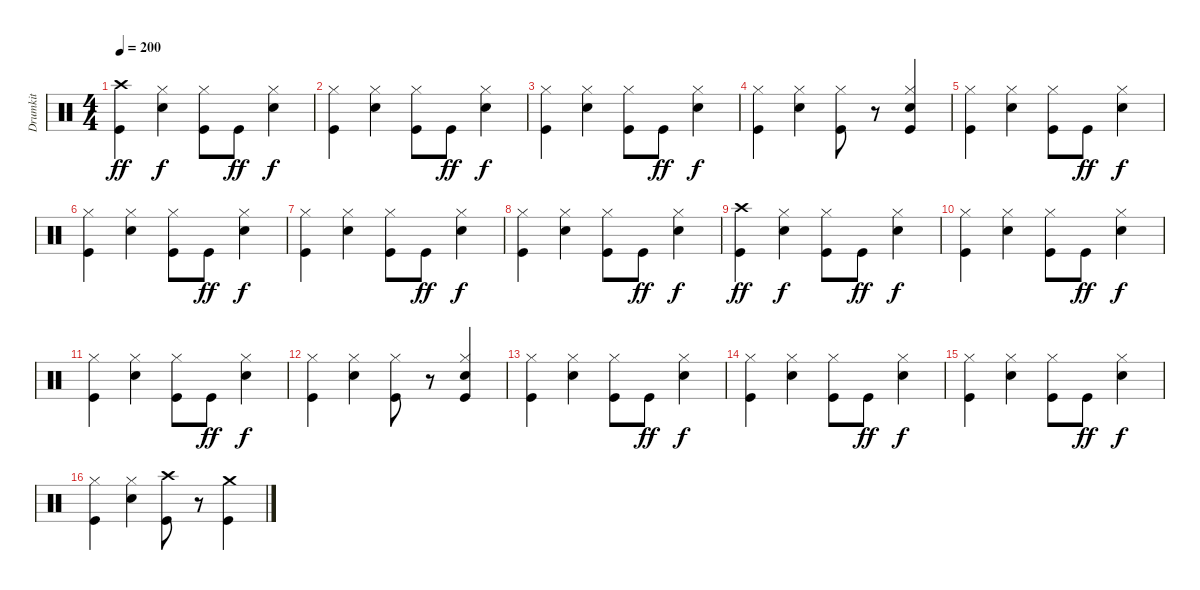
\track ("Drumkit" "Drumkit") {instrument percussion}
\staff {score}
\articulation defaults
\ts (4 4)
\tempo 200
\clef neutral
\ks c
("Crash high (hit)" "Kick (hit)").4{dy ff} ("Hi-Hat (closed)" "Snare (hit) 2").4{dy f} ("Hi-Hat (closed)" "Kick (hit)").8 "Kick (hit)".8{dy ff} ("Hi-Hat (closed)" "Snare (hit) 2").4{dy f} |
("Hi-Hat (closed)" "Kick (hit)").4 ("Hi-Hat (closed)" "Snare (hit) 2").4 ("Hi-Hat (closed)" "Kick (hit)").8 "Kick (hit)".8{dy ff} ("Hi-Hat (closed)" "Snare (hit) 2").4{dy f} |
("Hi-Hat (closed)" "Kick (hit)").4 ("Hi-Hat (closed)" "Snare (hit) 2").4 ("Hi-Hat (closed)" "Kick (hit)").8 "Kick (hit)".8{dy ff} ("Hi-Hat (closed)" "Snare (hit) 2").4{dy f} |
("Hi-Hat (closed)" "Kick (hit)").4 ("Hi-Hat (closed)" "Snare (hit) 2").4 ("Hi-Hat (closed)" "Kick (hit)").8 r.8 ("Hi-Hat (closed)" "Snare (hit) 2" "Kick (hit)").4 |
("Hi-Hat (closed)" "Kick (hit)").4 ("Hi-Hat (closed)" "Snare (hit) 2").4 ("Hi-Hat (closed)" "Kick (hit)").8 "Kick (hit)".8{dy ff} ("Hi-Hat (closed)" "Snare (hit) 2").4{dy f} |
("Hi-Hat (closed)" "Kick (hit)").4 ("Hi-Hat (closed)" "Snare (hit) 2").4 ("Hi-Hat (closed)" "Kick (hit)").8 "Kick (hit)".8{dy ff} ("Hi-Hat (closed)" "Snare (hit) 2").4{dy f} |
("Hi-Hat (closed)" "Kick (hit)").4 ("Hi-Hat (closed)" "Snare (hit) 2").4 ("Hi-Hat (closed)" "Kick (hit)").8 "Kick (hit)".8{dy ff} ("Hi-Hat (closed)" "Snare (hit) 2").4{dy f} |
("Hi-Hat (closed)" "Kick (hit)").4 ("Hi-Hat (closed)" "Snare (hit) 2").4 ("Hi-Hat (closed)" "Kick (hit)").8 "Kick (hit)".8{dy ff} ("Hi-Hat (closed)" "Snare (hit) 2").4{dy f} |
("Crash high (hit)" "Kick (hit)").4{dy ff} ("Hi-Hat (closed)" "Snare (hit) 2").4{dy f} ("Hi-Hat (closed)" "Kick (hit)").8 "Kick (hit)".8{dy ff} ("Hi-Hat (closed)" "Snare (hit) 2").4{dy f} |
("Hi-Hat (closed)" "Kick (hit)").4 ("Hi-Hat (closed)" "Snare (hit) 2").4 ("Hi-Hat (closed)" "Kick (hit)").8 "Kick (hit)".8{dy ff} ("Hi-Hat (closed)" "Snare (hit) 2").4{dy f} |
("Hi-Hat (closed)" "Kick (hit)").4 ("Hi-Hat (closed)" "Snare (hit) 2").4 ("Hi-Hat (closed)" "Kick (hit)").8 "Kick (hit)".8{dy ff} ("Hi-Hat (closed)" "Snare (hit) 2").4{dy f} |
("Hi-Hat (closed)" "Kick (hit)").4 ("Hi-Hat (closed)" "Snare (hit) 2").4 ("Hi-Hat (closed)" "Kick (hit)").8 r.8 ("Hi-Hat (closed)" "Snare (hit) 2" "Kick (hit)").4 |
("Hi-Hat (closed)" "Kick (hit)").4 ("Hi-Hat (closed)" "Snare (hit) 2").4 ("Hi-Hat (closed)" "Kick (hit)").8 "Kick (hit)".8{dy ff} ("Hi-Hat (closed)" "Snare (hit) 2").4{dy f} |
("Hi-Hat (closed)" "Kick (hit)").4 ("Hi-Hat (closed)" "Snare (hit) 2").4 ("Hi-Hat (closed)" "Kick (hit)").8 "Kick (hit)".8{dy ff} ("Hi-Hat (closed)" "Snare (hit) 2").4{dy f} |
("Hi-Hat (closed)" "Kick (hit)").4 ("Hi-Hat (closed)" "Snare (hit) 2").4 ("Hi-Hat (closed)" "Kick (hit)").8 "Kick (hit)".8{dy ff} ("Hi-Hat (closed)" "Snare (hit) 2").4{dy f} |
("Hi-Hat (closed)" "Kick (hit)").4 ("Hi-Hat (closed)" "Snare (hit) 2").4 ("Crash high (hit)" "Kick (hit)").8 r.8 ("Crash medium (hit)" "Kick (hit)").4
